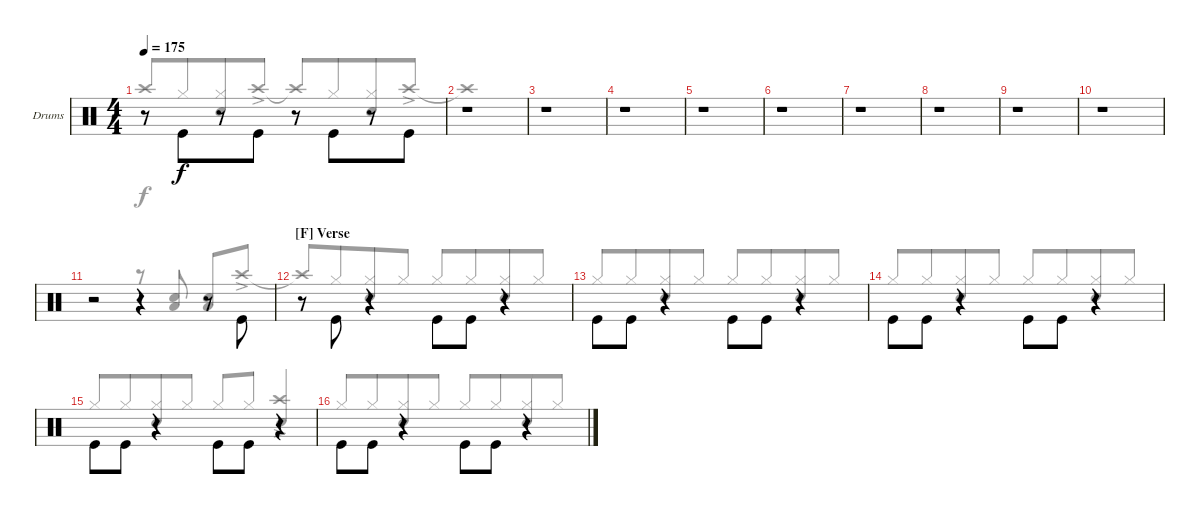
\defaultSystemsLayout 4
\bracketExtendMode groupsimilarinstruments
\firstSystemTrackNameOrientation horizontal
\otherSystemsTrackNameOrientation horizontal
\track ("Drum" "Drums") {instrument percussion}
\staff {score}
\articulation defaults
\voice
\ts (4 4)
\tempo 175
\clef neutral
\scale
1.02648
\ks c
r.8{dy f} "Kick (hit)".8{beam invert beam merge} r.8{beam merge} "Kick (hit)".8 r.8 "Kick (hit)".8{beam invert beam merge} r.8{beam merge} "Kick (hit)".8 |
\scale
0.973518 r.1 |
\scale
1.02648 r.1 |
\scale
0.973518 r.1 |
\scale
1.02648 r.1 |
\scale
0.973518 r.1 |
\scale
1.02648 r.1 |
\scale
0.973518 r.1 |
\scale
1.02648 r.1 |
\scale
0.973518 r.1 |
\scale
1.02648 r.2 r.4 r.8 "Kick (hit)".8{beam invert} |
\section ("F" "Verse")
\scale
0.973518 r.8{beam invert} "Kick (hit)".8{beam invert} r.4 "Kick (hit)".8{beam invert} "Kick (hit)".8 r.4 |
\scale
1.02648 "Kick (hit)".8{beam invert} "Kick (hit)".8 r.4 "Kick (hit)".8{beam invert} "Kick (hit)".8 r.4 |
\scale
0.973518 "Kick (hit)".8{beam invert} "Kick (hit)".8 r.4 "Kick (hit)".8{beam invert} "Kick (hit)".8 r.4 |
\scale
1.02648 "Kick (hit)".8{beam invert} "Kick (hit)".8 r.4 "Kick (hit)".8{beam invert} "Kick (hit)".8 r.4 |
\scale
0.973518 "Kick (hit)".8{beam invert} "Kick (hit)".8 r.4 "Kick (hit)".8{beam invert} "Kick (hit)".8 r.4
\voice
\clef neutral
\ottava regular
\simile none
\scale
1.02648
\ks c "Crash high (hit)"{t}.8{dy f beam invert beam merge} "Hi-Hat (closed)".8{beam merge}
("Hi-Hat (closed)" "Snare (hit) 2").8{beam merge} "Crash high (hit)"{ac}.8 "Crash high (hit)"{t}.8{beam invert beam merge} "Hi-Hat (closed)".8{beam merge} ("Hi-Hat (closed)" "Snare (hit) 2").8{beam merge} "Crash high (hit)"{ac}.8 |
\scale
0.973518 "Crash high (hit)"{t}.1 |
\scale
1.02648 |
\scale
0.973518 |
\scale
1.02648 |
\scale
0.973518 |
\scale
1.02648 |
\scale
0.973518 |
\scale
1.02648 |
\scale
0.973518 |
\scale
1.02648 r.2 r.8 ("Snare (hit) 2" "Low Tom (hit)").8{beam invert} ("Snare (hit) 2" "Low Tom (hit)").8{beam invert} "Crash high (hit)"{ac}.8 |
\scale
0.973518 "Crash high (hit)"{t}.8{beam invert beam merge} "Hi-Hat (closed)".8{beam merge} ("Hi-Hat (closed)" "Snare (hit) 2").8{beam merge} "Hi-Hat (closed)".8 "Hi-Hat (closed)".8{beam invert beam merge} "Hi-Hat (closed)".8{beam merge} ("Hi-Hat (closed)" "Snare (hit) 2").8{beam merge} "Hi-Hat (closed)".8 |
\scale
1.02648 "Hi-Hat (closed)".8{beam invert beam merge} "Hi-Hat (closed)".8{beam merge} ("Hi-Hat (closed)" "Snare (hit) 2").8{beam merge} "Hi-Hat (closed)".8 "Hi-Hat (closed)".8{beam invert beam merge} "Hi-Hat (closed)".8{beam merge} ("Hi-Hat (closed)" "Snare (hit) 2").8{beam merge} "Hi-Hat (closed)".8 |
\scale
0.973518 "Hi-Hat (closed)".8{beam invert beam merge} "Hi-Hat (closed)".8{beam merge} ("Hi-Hat (closed)" "Snare (hit) 2").8{beam merge} "Hi-Hat (closed)".8 "Hi-Hat (closed)".8{beam invert beam merge} "Hi-Hat (closed)".8{beam merge} ("Hi-Hat (closed)" "Snare (hit) 2").8{beam merge} "Hi-Hat (closed)".8 |
\scale
1.02648 "Hi-Hat (closed)".8{beam invert beam merge} "Hi-Hat (closed)".8{beam merge} ("Hi-Hat (closed)" "Snare (hit) 2").8{beam merge} "Hi-Hat (closed)".8 "Hi-Hat (closed)".8{beam invert beam merge} "Hi-Hat (closed)".8{beam merge} ("Crash high (hit)"{ac} "Snare (hit) 2").4{beam invert} |
\scale
0.973518 "Hi-Hat (closed)".8{beam invert beam merge} "Hi-Hat (closed)".8{beam merge} ("Hi-Hat (closed)" "Snare (hit) 2").8{beam merge} "Hi-Hat (closed)".8 "Hi-Hat (closed)".8{beam invert beam merge} "Hi-Hat (closed)".8{beam merge} ("Hi-Hat (closed)" "Snare (hit) 2").8{beam merge} "Hi-Hat (closed)".8
